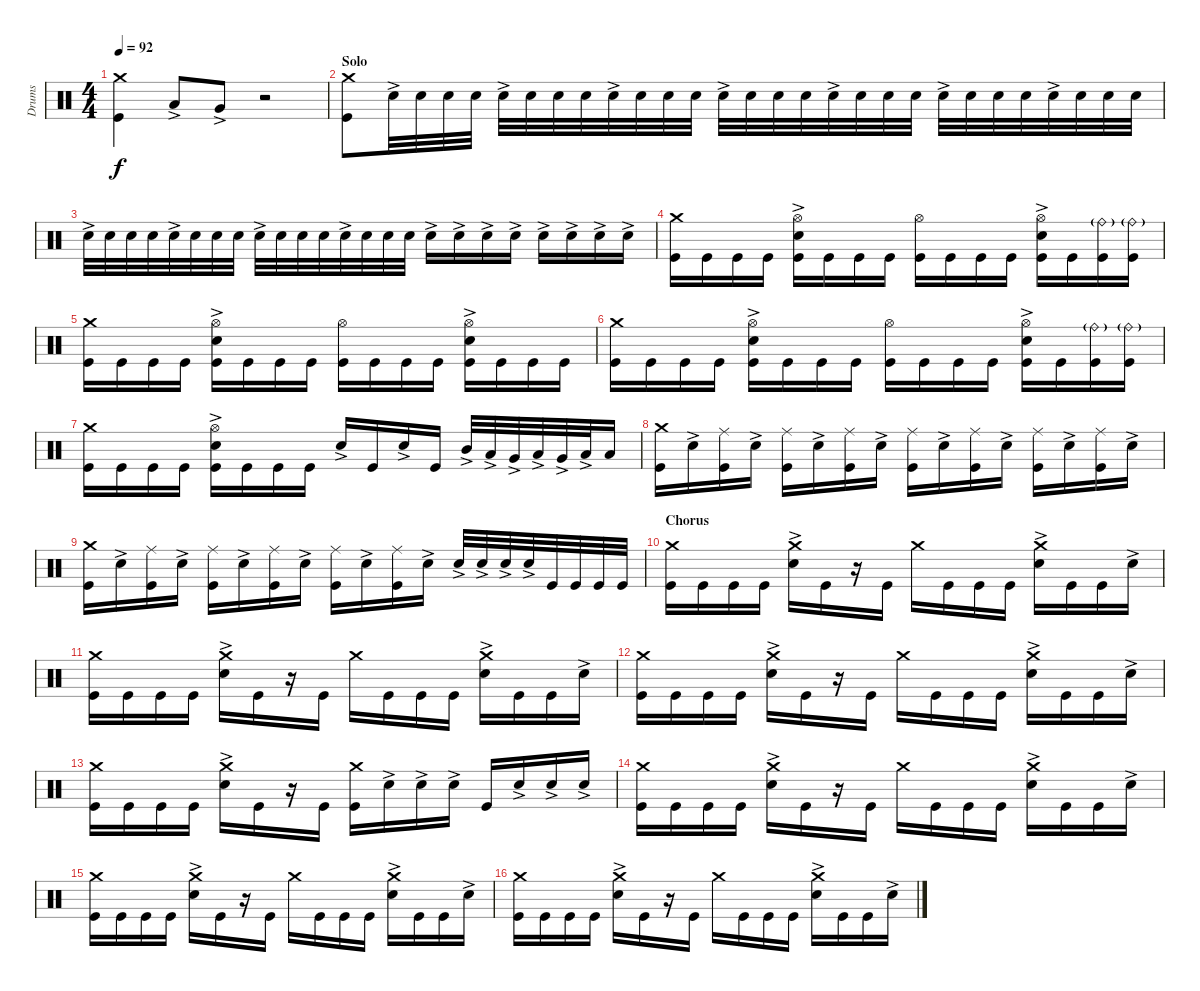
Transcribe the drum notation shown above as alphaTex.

\track ("Drums" "Drums") {instrument percussion}
\staff {score}
\articulation defaults
\ts (4 4)
\tempo 92
\clef neutral
\ks c
("Kick (hit)" "Crash medium (hit)").4{dy f} "Low Tom (hit)"{ac}.8 "Very Low Tom (hit)"{ac}.8 r.2 |
\section ("" "Solo")
("Kick (hit)" "Crash medium (hit)").8 "Snare (hit) 2"{ac}.32 "Snare (hit) 2".32 "Snare (hit) 2".32 "Snare (hit) 2".32 "Snare (hit) 2"{ac}.32 "Snare (hit) 2".32 "Snare (hit) 2".32 "Snare (hit) 2".32 "Snare (hit) 2"{ac}.32 "Snare (hit) 2".32 "Snare (hit) 2".32 "Snare (hit) 2".32 "Snare (hit) 2"{ac}.32 "Snare (hit) 2".32 "Snare (hit) 2".32 "Snare (hit) 2".32 "Snare (hit) 2"{ac}.32 "Snare (hit) 2".32 "Snare (hit) 2".32 "Snare (hit) 2".32 "Snare (hit) 2"{ac}.32 "Snare (hit) 2".32 "Snare (hit) 2".32 "Snare (hit) 2".32 "Snare (hit) 2"{ac}.32 "Snare (hit) 2".32 "Snare (hit) 2".32 "Snare (hit) 2".32 |
"Snare (hit) 2"{ac}.32 "Snare (hit) 2".32 "Snare (hit) 2".32 "Snare (hit) 2".32 "Snare (hit) 2"{ac}.32 "Snare (hit) 2".32 "Snare (hit) 2".32 "Snare (hit) 2".32 "Snare (hit) 2"{ac}.32 "Snare (hit) 2".32 "Snare (hit) 2".32 "Snare (hit) 2".32 "Snare (hit) 2"{ac}.32 "Snare (hit) 2".32 "Snare (hit) 2".32 "Snare (hit) 2".32 "Snare (hit) 2"{ac}.16 "Snare (hit) 2"{ac}.16 "Snare (hit) 2"{ac}.16 "Snare (hit) 2"{ac}.16 "Snare (hit) 2"{ac}.16 "Snare (hit) 2"{ac}.16 "Snare (hit) 2"{ac}.16 "Snare (hit) 2"{ac}.16 |
("Kick (hit)" "Crash medium (hit)").16 "Kick (hit)".16 "Kick (hit)".16 "Kick (hit)".16 ("Kick (hit)" "Hi-Hat (open)" "Snare (hit) 2"{ac}).16 "Kick (hit)".16 "Kick (hit)".16 "Kick (hit)".16 ("Kick (hit)" "Hi-Hat (open)").16 "Kick (hit)".16 "Kick (hit)".16 "Kick (hit)".16 ("Kick (hit)" "Hi-Hat (open)" "Snare (hit) 2"{ac}).16 "Kick (hit)".16 ("Kick (hit)" "Ride (bell)"{g}).16 ("Kick (hit)" "Ride (bell)"{g}).16 |
("Kick (hit)" "Crash medium (hit)").16 "Kick (hit)".16 "Kick (hit)".16 "Kick (hit)".16 ("Kick (hit)" "Hi-Hat (open)" "Snare (hit) 2"{ac}).16 "Kick (hit)".16 "Kick (hit)".16 "Kick (hit)".16 ("Kick (hit)" "Hi-Hat (open)").16 "Kick (hit)".16 "Kick (hit)".16 "Kick (hit)".16 ("Kick (hit)" "Hi-Hat (open)" "Snare (hit) 2"{ac}).16 "Kick (hit)".16 "Kick (hit)".16 "Kick (hit)".16 |
("Kick (hit)" "Crash medium (hit)").16 "Kick (hit)".16 "Kick (hit)".16 "Kick (hit)".16 ("Kick (hit)" "Hi-Hat (open)" "Snare (hit) 2"{ac}).16 "Kick (hit)".16 "Kick (hit)".16 "Kick (hit)".16 ("Kick (hit)" "Hi-Hat (open)").16 "Kick (hit)".16 "Kick (hit)".16 "Kick (hit)".16 ("Kick (hit)" "Hi-Hat (open)" "Snare (hit) 2"{ac}).16 "Kick (hit)".16 ("Kick (hit)" "Ride (bell)"{g}).16 ("Kick (hit)" "Ride (bell)"{g}).16 |
("Kick (hit)" "Crash medium (hit)").16 "Kick (hit)".16 "Kick (hit)".16 "Kick (hit)".16 ("Kick (hit)" "Hi-Hat (open)" "Snare (hit) 2"{ac}).16 "Kick (hit)".16 "Kick (hit)".16 "Kick (hit)".16 "Snare (hit) 2"{ac}.16 "Kick (hit)".16 "Snare (hit) 2"{ac}.16 "Kick (hit)".16 "Mid Tom (hit)"{ac}.32 "Low Tom (hit)"{ac}.32 "Very Low Tom (hit)"{ac}.32 "Low Tom (hit)"{ac}.32 "Very Low Tom (hit)"{ac}.32 "Low Floor Tom (hit)"{ac}.32 "Low Floor Tom (hit)".16 |
("Kick (hit)" "Crash medium (hit)").16 "Snare (hit) 2"{ac}.16 ("Kick (hit)" "Ride (middle)").16 "Snare (hit) 2"{ac}.16 ("Kick (hit)" "Ride (middle)").16 "Snare (hit) 2"{ac}.16 ("Kick (hit)" "Ride (middle)").16 "Snare (hit) 2"{ac}.16 ("Kick (hit)" "Ride (middle)").16 "Snare (hit) 2"{ac}.16 ("Kick (hit)" "Ride (middle)").16 "Snare (hit) 2"{ac}.16 ("Kick (hit)" "Ride (middle)").16 "Snare (hit) 2"{ac}.16 ("Kick (hit)" "Ride (middle)").16 "Snare (hit) 2"{ac}.16 |
("Kick (hit)" "Crash medium (hit)").16 "Snare (hit) 2"{ac}.16 ("Kick (hit)" "Ride (middle)").16 "Snare (hit) 2"{ac}.16 ("Kick (hit)" "Ride (middle)").16 "Snare (hit) 2"{ac}.16 ("Kick (hit)" "Ride (middle)").16 "Snare (hit) 2"{ac}.16 ("Kick (hit)" "Ride (middle)").16 "Snare (hit) 2"{ac}.16 ("Kick (hit)" "Ride (middle)").16 "Snare (hit) 2"{ac}.16 "Snare (hit) 2"{ac}.32 "Snare (hit) 2"{ac}.32 "Snare (hit) 2"{ac}.32 "Snare (hit) 2"{ac}.32 "Kick (hit)".32 "Kick (hit)".32 "Kick (hit)".32 "Kick (hit)".32 |
\section ("" "Chorus")
("Crash medium (hit)" "Kick (hit)").16 "Kick (hit)".16 "Kick (hit)".16 "Kick (hit)".16 ("Crash medium (hit)" "Snare (hit) 2"{ac}).16 "Kick (hit)".16 r.16 "Kick (hit)".16 "Crash medium (hit)".16 "Kick (hit)".16 "Kick (hit)".16 "Kick (hit)".16 ("Crash medium (hit)" "Snare (hit) 2"{ac}).16 "Kick (hit)".16 "Kick (hit)".16 "Snare (hit) 2"{ac}.16 |
("Crash medium (hit)" "Kick (hit)").16 "Kick (hit)".16 "Kick (hit)".16 "Kick (hit)".16 ("Crash medium (hit)" "Snare (hit) 2"{ac}).16 "Kick (hit)".16 r.16 "Kick (hit)".16 "Crash medium (hit)".16 "Kick (hit)".16 "Kick (hit)".16 "Kick (hit)".16 ("Crash medium (hit)" "Snare (hit) 2"{ac}).16 "Kick (hit)".16 "Kick (hit)".16 "Snare (hit) 2"{ac}.16 |
("Crash medium (hit)" "Kick (hit)").16 "Kick (hit)".16 "Kick (hit)".16 "Kick (hit)".16 ("Crash medium (hit)" "Snare (hit) 2"{ac}).16 "Kick (hit)".16 r.16 "Kick (hit)".16 "Crash medium (hit)".16 "Kick (hit)".16 "Kick (hit)".16 "Kick (hit)".16 ("Crash medium (hit)" "Snare (hit) 2"{ac}).16 "Kick (hit)".16 "Kick (hit)".16 "Snare (hit) 2"{ac}.16 |
("Crash medium (hit)" "Kick (hit)").16 "Kick (hit)".16 "Kick (hit)".16 "Kick (hit)".16 ("Crash medium (hit)" "Snare (hit) 2"{ac}).16 "Kick (hit)".16 r.16 "Kick (hit)".16 ("Kick (hit)" "Crash medium (hit)").16 "Snare (hit) 2"{ac}.16 "Snare (hit) 2"{ac}.16 "Snare (hit) 2"{ac}.16 "Kick (hit)".16 "Snare (hit) 2"{ac}.16 "Snare (hit) 2"{ac}.16 "Snare (hit) 2"{ac}.16 |
("Crash medium (hit)" "Kick (hit)").16 "Kick (hit)".16 "Kick (hit)".16 "Kick (hit)".16 ("Crash medium (hit)" "Snare (hit) 2"{ac}).16 "Kick (hit)".16 r.16 "Kick (hit)".16 "Crash medium (hit)".16 "Kick (hit)".16 "Kick (hit)".16 "Kick (hit)".16 ("Crash medium (hit)" "Snare (hit) 2"{ac}).16 "Kick (hit)".16 "Kick (hit)".16 "Snare (hit) 2"{ac}.16 |
("Crash medium (hit)" "Kick (hit)").16 "Kick (hit)".16 "Kick (hit)".16 "Kick (hit)".16 ("Crash medium (hit)" "Snare (hit) 2"{ac}).16 "Kick (hit)".16 r.16 "Kick (hit)".16 "Crash medium (hit)".16 "Kick (hit)".16 "Kick (hit)".16 "Kick (hit)".16 ("Crash medium (hit)" "Snare (hit) 2"{ac}).16 "Kick (hit)".16 "Kick (hit)".16 "Snare (hit) 2"{ac}.16 |
("Crash medium (hit)" "Kick (hit)").16 "Kick (hit)".16 "Kick (hit)".16 "Kick (hit)".16 ("Crash medium (hit)" "Snare (hit) 2"{ac}).16 "Kick (hit)".16 r.16 "Kick (hit)".16 "Crash medium (hit)".16 "Kick (hit)".16 "Kick (hit)".16 "Kick (hit)".16 ("Crash medium (hit)" "Snare (hit) 2"{ac}).16 "Kick (hit)".16 "Kick (hit)".16 "Snare (hit) 2"{ac}.16
